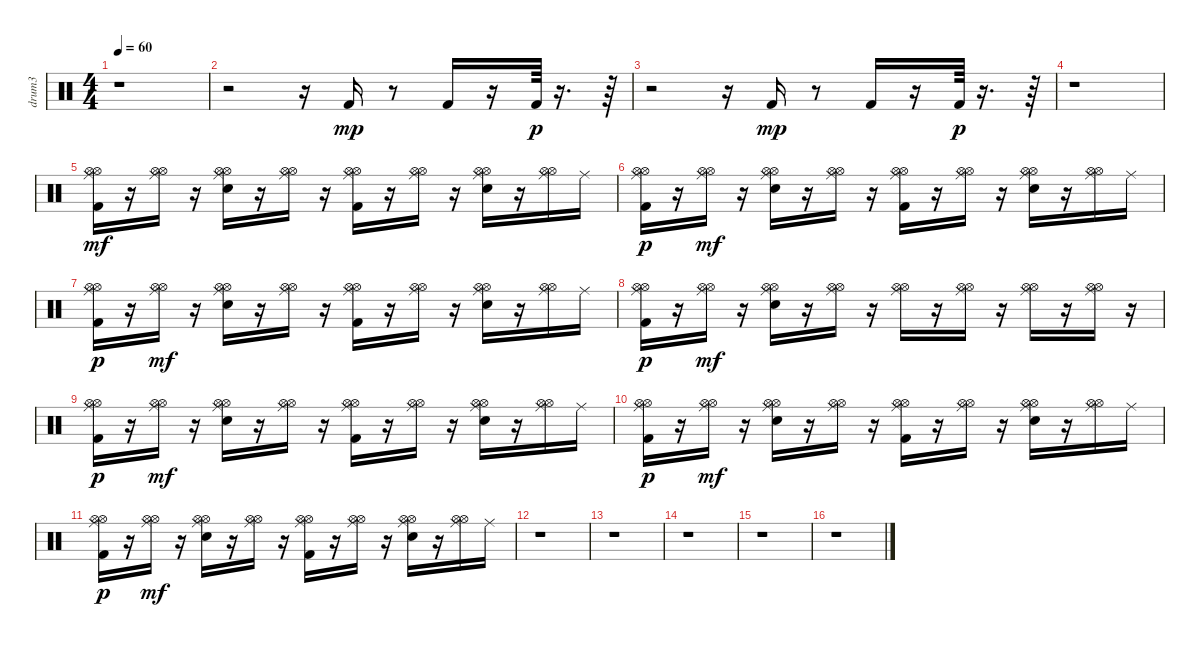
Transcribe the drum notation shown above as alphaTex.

\track ("drum3" "drum3") {instrument percussion}
\staff {score}
\articulation defaults
\ts (4 4)
\tempo 60
\clef neutral
\ks c
r.1{dy p} |
r.2 r.16 "Kick (hit) 2".16{dy mp} r.8 "Kick (hit) 2".16 r.16 "Kick (hit) 2".64{dy p} r.16{d} r.64 |
r.2 r.16 "Kick (hit) 2".16{dy mp} r.8 "Kick (hit) 2".16 r.16 "Kick (hit) 2".64{dy p} r.16{d} r.64 |
r.1 |
("Hi-Hat (open)" "Ride (middle)" "Kick (hit) 2" "Hi-Hat (open)").16{dy mf} r.16 ("Hi-Hat (open)" "Ride (middle)" "Hi-Hat (open)").16 r.16 ("Hi-Hat (open)" "Ride (middle)" "Snare (hit) 2" "Hi-Hat (open)").16 r.16 ("Hi-Hat (open)" "Ride (middle)" "Hi-Hat (open)").16 r.16 ("Hi-Hat (open)" "Ride (middle)" "Kick (hit) 2" "Hi-Hat (open)").16 r.16 ("Hi-Hat (open)" "Ride (middle)" "Hi-Hat (open)").16 r.16 ("Hi-Hat (open)" "Ride (middle)" "Hi-Hat (open)" "Snare (hit) 2").16 r.16 ("Hi-Hat (open)" "Ride (middle)" "Hi-Hat (open)").16 "Ride (middle)".16 |
("Hi-Hat (open)" "Ride (middle)" "Hi-Hat (open)" "Kick (hit) 2").16{dy p} r.16 ("Hi-Hat (open)" "Ride (middle)" "Hi-Hat (open)").16{dy mf} r.16 ("Hi-Hat (open)" "Ride (middle)" "Hi-Hat (open)" "Snare (hit) 2").16 r.16 ("Hi-Hat (open)" "Ride (middle)" "Hi-Hat (open)").16 r.16 ("Ride (middle)" "Hi-Hat (open)" "Kick (hit) 2" "Hi-Hat (open)").16 r.16 ("Ride (middle)" "Hi-Hat (open)" "Hi-Hat (open)").16 r.16 ("Ride (middle)" "Hi-Hat (open)" "Snare (hit) 2" "Hi-Hat (open)").16 r.16 ("Ride (middle)" "Hi-Hat (open)" "Hi-Hat (open)").16 "Ride (middle)".16 |
("Ride (middle)" "Hi-Hat (open)" "Hi-Hat (open)" "Kick (hit) 2").16{dy p} r.16 ("Ride (middle)" "Hi-Hat (open)" "Hi-Hat (open)").16{dy mf} r.16 ("Ride (middle)" "Hi-Hat (open)" "Hi-Hat (open)" "Snare (hit) 2").16 r.16 ("Ride (middle)" "Hi-Hat (open)" "Hi-Hat (open)").16 r.16 ("Ride (middle)" "Hi-Hat (open)" "Kick (hit) 2" "Hi-Hat (open)").16 r.16 ("Ride (middle)" "Hi-Hat (open)" "Hi-Hat (open)").16 r.16 ("Ride (middle)" "Hi-Hat (open)" "Snare (hit) 2" "Hi-Hat (open)").16 r.16 ("Ride (middle)" "Hi-Hat (open)" "Hi-Hat (open)").16 "Ride (middle)".16 |
("Ride (middle)" "Hi-Hat (open)" "Hi-Hat (open)" "Kick (hit) 2").16{dy p} r.16 ("Ride (middle)" "Hi-Hat (open)" "Hi-Hat (open)").16{dy mf} r.16 ("Ride (middle)" "Hi-Hat (open)" "Hi-Hat (open)" "Snare (hit) 2").16 r.16 ("Ride (middle)" "Hi-Hat (open)" "Hi-Hat (open)").16 r.16 ("Ride (middle)" "Hi-Hat (open)" "Hi-Hat (open)").16 r.16 ("Ride (middle)" "Hi-Hat (open)" "Hi-Hat (open)").16 r.16 ("Ride (middle)" "Hi-Hat (open)" "Hi-Hat (open)").16 r.16 ("Ride (middle)" "Hi-Hat (open)" "Hi-Hat (open)").16 r.16 |
("Ride (middle)" "Hi-Hat (open)" "Hi-Hat (open)" "Kick (hit) 2").16{dy p} r.16 ("Ride (middle)" "Hi-Hat (open)" "Hi-Hat (open)").16{dy mf} r.16 ("Ride (middle)" "Hi-Hat (open)" "Hi-Hat (open)" "Snare (hit) 2").16 r.16 ("Ride (middle)" "Hi-Hat (open)" "Hi-Hat (open)").16 r.16 ("Ride (middle)" "Hi-Hat (open)" "Kick (hit) 2" "Hi-Hat (open)").16 r.16 ("Ride (middle)" "Hi-Hat (open)" "Hi-Hat (open)").16 r.16 ("Ride (middle)" "Hi-Hat (open)" "Snare (hit) 2" "Hi-Hat (open)").16 r.16 ("Ride (middle)" "Hi-Hat (open)" "Hi-Hat (open)").16 "Ride (middle)".16 |
("Hi-Hat (open)" "Ride (middle)" "Hi-Hat (open)" "Kick (hit) 2").16{dy p} r.16 ("Hi-Hat (open)" "Ride (middle)" "Hi-Hat (open)").16{dy mf} r.16 ("Hi-Hat (open)" "Ride (middle)" "Hi-Hat (open)" "Snare (hit) 2").16 r.16 ("Hi-Hat (open)" "Ride (middle)" "Hi-Hat (open)").16 r.16 ("Ride (middle)" "Hi-Hat (open)" "Kick (hit) 2" "Hi-Hat (open)").16 r.16 ("Ride (middle)" "Hi-Hat (open)" "Hi-Hat (open)").16 r.16 ("Ride (middle)" "Hi-Hat (open)" "Snare (hit) 2" "Hi-Hat (open)").16 r.16 ("Ride (middle)" "Hi-Hat (open)" "Hi-Hat (open)").16 "Ride (middle)".16 |
("Ride (middle)" "Hi-Hat (open)" "Hi-Hat (open)" "Kick (hit) 2").16{dy p} r.16 ("Ride (middle)" "Hi-Hat (open)" "Hi-Hat (open)").16{dy mf} r.16 ("Ride (middle)" "Hi-Hat (open)" "Hi-Hat (open)" "Snare (hit) 2").16 r.16 ("Ride (middle)" "Hi-Hat (open)" "Hi-Hat (open)").16 r.16 ("Ride (middle)" "Hi-Hat (open)" "Kick (hit) 2" "Hi-Hat (open)").16 r.16 ("Ride (middle)" "Hi-Hat (open)" "Hi-Hat (open)").16 r.16 ("Ride (middle)" "Hi-Hat (open)" "Snare (hit) 2" "Hi-Hat (open)").16 r.16 ("Ride (middle)" "Hi-Hat (open)" "Hi-Hat (open)").16 "Ride (middle)".16 |
r.1 |
r.1 |
r.1 |
r.1 |
r.1
